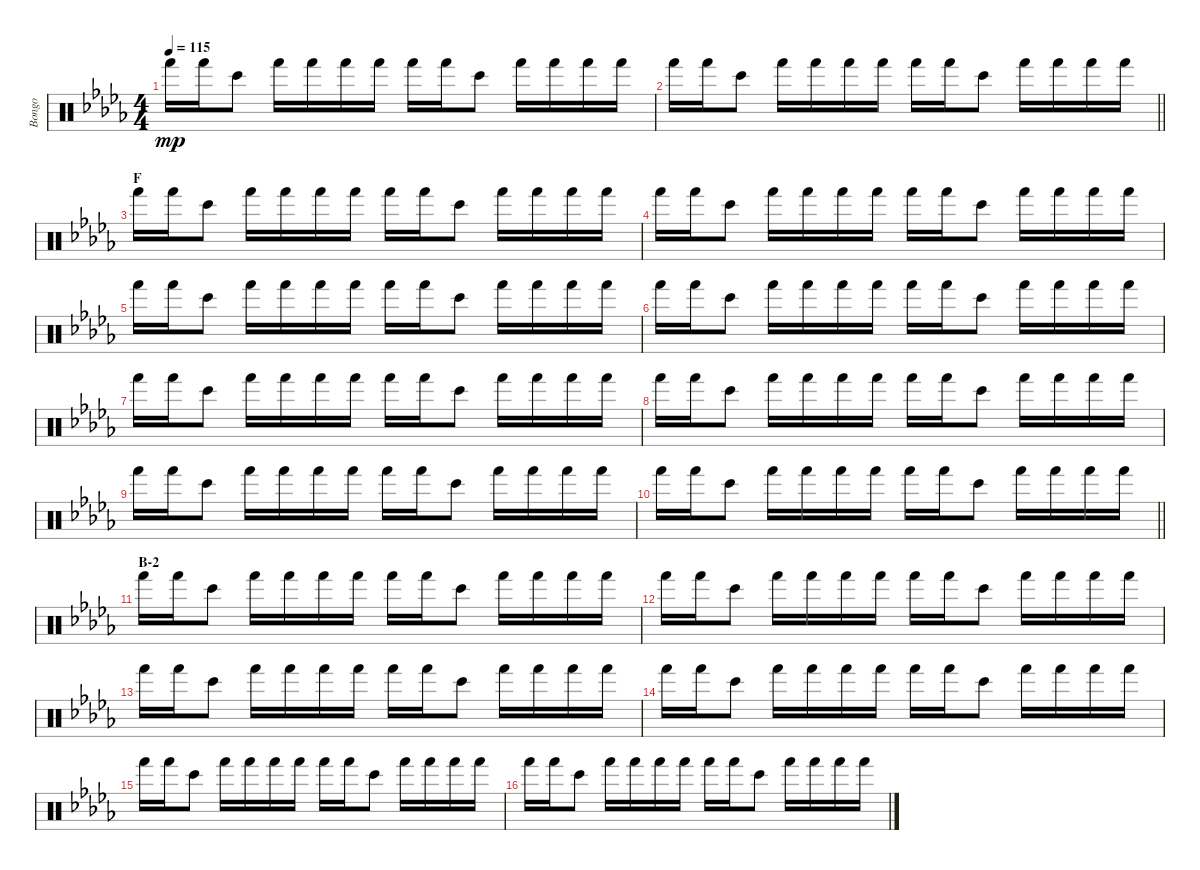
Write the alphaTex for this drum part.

\track ("Bongo" "Bongo") {instrument percussion}
\staff {score}
\articulation defaults
\ts (4 4)
\tempo 115
\clef neutral
\ks db "Hand (hit)".16{dy mp} "Hand (hit)".16 "Bongo High (hit)".8 "Hand (hit)".16 "Hand (hit)".16 "Hand (hit)".16 "Hand (hit)".16 "Hand (hit)".16 "Hand (hit)".16 "Bongo High (hit)".8 "Hand (hit)".16 "Hand (hit)".16 "Hand (hit)".16 "Hand (hit)".16
|
\barLineRight lightlight "Hand (hit)".16 "Hand (hit)".16 "Bongo High (hit)".8 "Hand (hit)".16 "Hand (hit)".16 "Hand (hit)".16 "Hand (hit)".16 "Hand (hit)".16 "Hand (hit)".16 "Bongo High (hit)".8 "Hand (hit)".16 "Hand (hit)".16 "Hand (hit)".16 "Hand (hit)".16
|
\section ("" "F")
"Hand (hit)".16 "Hand (hit)".16 "Bongo High (hit)".8 "Hand (hit)".16 "Hand (hit)".16 "Hand (hit)".16 "Hand (hit)".16 "Hand (hit)".16 "Hand (hit)".16 "Bongo High (hit)".8 "Hand (hit)".16 "Hand (hit)".16 "Hand (hit)".16 "Hand (hit)".16 |
"Hand (hit)".16 "Hand (hit)".16 "Bongo High (hit)".8 "Hand (hit)".16 "Hand (hit)".16 "Hand (hit)".16 "Hand (hit)".16 "Hand (hit)".16 "Hand (hit)".16 "Bongo High (hit)".8 "Hand (hit)".16 "Hand (hit)".16 "Hand (hit)".16 "Hand (hit)".16 |
"Hand (hit)".16 "Hand (hit)".16 "Bongo High (hit)".8 "Hand (hit)".16 "Hand (hit)".16 "Hand (hit)".16 "Hand (hit)".16 "Hand (hit)".16 "Hand (hit)".16 "Bongo High (hit)".8 "Hand (hit)".16 "Hand (hit)".16 "Hand (hit)".16 "Hand (hit)".16 |
"Hand (hit)".16 "Hand (hit)".16 "Bongo High (hit)".8 "Hand (hit)".16 "Hand (hit)".16 "Hand (hit)".16 "Hand (hit)".16 "Hand (hit)".16 "Hand (hit)".16 "Bongo High (hit)".8 "Hand (hit)".16 "Hand (hit)".16 "Hand (hit)".16 "Hand (hit)".16 |
"Hand (hit)".16 "Hand (hit)".16 "Bongo High (hit)".8 "Hand (hit)".16 "Hand (hit)".16 "Hand (hit)".16 "Hand (hit)".16 "Hand (hit)".16 "Hand (hit)".16 "Bongo High (hit)".8 "Hand (hit)".16 "Hand (hit)".16 "Hand (hit)".16 "Hand (hit)".16 |
"Hand (hit)".16 "Hand (hit)".16 "Bongo High (hit)".8 "Hand (hit)".16 "Hand (hit)".16 "Hand (hit)".16 "Hand (hit)".16 "Hand (hit)".16 "Hand (hit)".16 "Bongo High (hit)".8 "Hand (hit)".16 "Hand (hit)".16 "Hand (hit)".16 "Hand (hit)".16 |
"Hand (hit)".16 "Hand (hit)".16 "Bongo High (hit)".8 "Hand (hit)".16 "Hand (hit)".16 "Hand (hit)".16 "Hand (hit)".16 "Hand (hit)".16 "Hand (hit)".16 "Bongo High (hit)".8 "Hand (hit)".16 "Hand (hit)".16 "Hand (hit)".16 "Hand (hit)".16 |
\barLineRight lightlight "Hand (hit)".16 "Hand (hit)".16 "Bongo High (hit)".8 "Hand (hit)".16 "Hand (hit)".16 "Hand (hit)".16 "Hand (hit)".16 "Hand (hit)".16 "Hand (hit)".16 "Bongo High (hit)".8 "Hand (hit)".16 "Hand (hit)".16 "Hand (hit)".16 "Hand (hit)".16
|
\section ("" "B-2")
"Hand (hit)".16 "Hand (hit)".16 "Bongo High (hit)".8 "Hand (hit)".16 "Hand (hit)".16 "Hand (hit)".16 "Hand (hit)".16 "Hand (hit)".16 "Hand (hit)".16 "Bongo High (hit)".8 "Hand (hit)".16 "Hand (hit)".16 "Hand (hit)".16 "Hand (hit)".16 |
"Hand (hit)".16 "Hand (hit)".16 "Bongo High (hit)".8 "Hand (hit)".16 "Hand (hit)".16 "Hand (hit)".16 "Hand (hit)".16 "Hand (hit)".16 "Hand (hit)".16 "Bongo High (hit)".8 "Hand (hit)".16 "Hand (hit)".16 "Hand (hit)".16 "Hand (hit)".16 |
"Hand (hit)".16 "Hand (hit)".16 "Bongo High (hit)".8 "Hand (hit)".16 "Hand (hit)".16 "Hand (hit)".16 "Hand (hit)".16 "Hand (hit)".16 "Hand (hit)".16 "Bongo High (hit)".8 "Hand (hit)".16 "Hand (hit)".16 "Hand (hit)".16 "Hand (hit)".16 |
"Hand (hit)".16 "Hand (hit)".16 "Bongo High (hit)".8 "Hand (hit)".16 "Hand (hit)".16 "Hand (hit)".16 "Hand (hit)".16 "Hand (hit)".16 "Hand (hit)".16 "Bongo High (hit)".8 "Hand (hit)".16 "Hand (hit)".16 "Hand (hit)".16 "Hand (hit)".16 |
"Hand (hit)".16 "Hand (hit)".16 "Bongo High (hit)".8 "Hand (hit)".16 "Hand (hit)".16 "Hand (hit)".16 "Hand (hit)".16 "Hand (hit)".16 "Hand (hit)".16 "Bongo High (hit)".8 "Hand (hit)".16 "Hand (hit)".16 "Hand (hit)".16 "Hand (hit)".16 |
"Hand (hit)".16 "Hand (hit)".16 "Bongo High (hit)".8 "Hand (hit)".16 "Hand (hit)".16 "Hand (hit)".16 "Hand (hit)".16 "Hand (hit)".16 "Hand (hit)".16 "Bongo High (hit)".8 "Hand (hit)".16 "Hand (hit)".16 "Hand (hit)".16 "Hand (hit)".16
